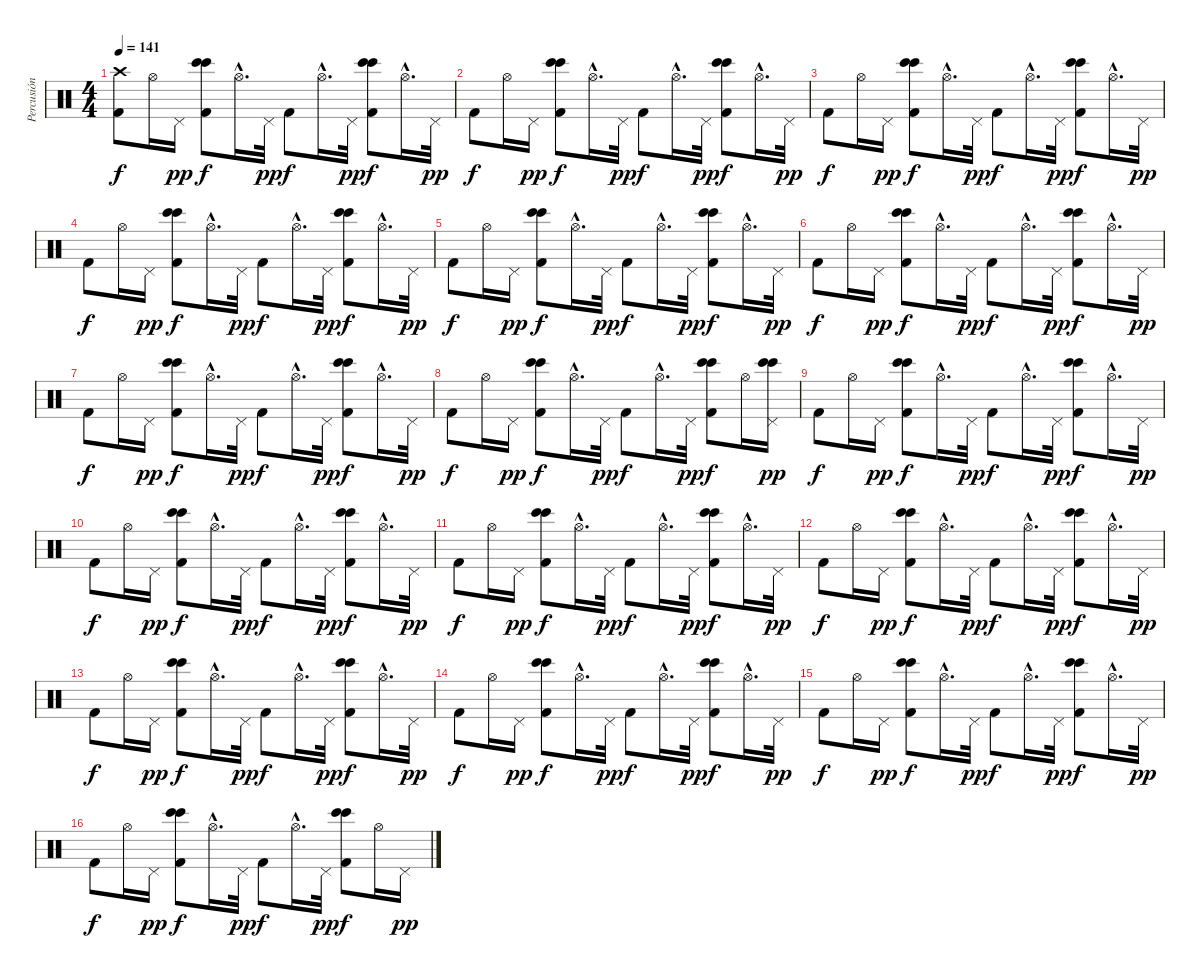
\track ("Percusión" "Percusión") {instrument percussion}
\staff {score}
\articulation defaults
\ts (4 4)
\tempo 141
\clef neutral
\ks c
("Crash high (hit)" "Kick (hit) 2").8{dy f} "Hi-Hat (open)".16 "Pedal Hi-Hat (hit)".16{dy pp} ("Bongo High (hit)" "Bongo High (hit)" "Kick (hit) 2").8{dy f} "Hi-Hat (open)"{hac}.16{d} "Pedal Hi-Hat (hit)".32{dy pp} "Kick (hit) 2".8{dy f} "Hi-Hat (open)"{hac}.16{d} "Pedal Hi-Hat (hit)".32{dy pp} ("Bongo High (hit)" "Bongo High (hit)" "Kick (hit) 2").8{dy f} "Hi-Hat (open)"{hac}.16{d} "Pedal Hi-Hat (hit)".32{dy pp} |
"Kick (hit) 2".8{dy f} "Hi-Hat (open)".16 "Pedal Hi-Hat (hit)".16{dy pp} ("Bongo High (hit)" "Bongo High (hit)" "Kick (hit) 2").8{dy f} "Hi-Hat (open)"{hac}.16{d} "Pedal Hi-Hat (hit)".32{dy pp} "Kick (hit) 2".8{dy f} "Hi-Hat (open)"{hac}.16{d} "Pedal Hi-Hat (hit)".32{dy pp} ("Bongo High (hit)" "Bongo High (hit)" "Kick (hit) 2").8{dy f} "Hi-Hat (open)"{hac}.16{d} "Pedal Hi-Hat (hit)".32{dy pp} |
"Kick (hit) 2".8{dy f} "Hi-Hat (open)".16 "Pedal Hi-Hat (hit)".16{dy pp} ("Bongo High (hit)" "Bongo High (hit)" "Kick (hit) 2").8{dy f} "Hi-Hat (open)"{hac}.16{d} "Pedal Hi-Hat (hit)".32{dy pp} "Kick (hit) 2".8{dy f} "Hi-Hat (open)"{hac}.16{d} "Pedal Hi-Hat (hit)".32{dy pp} ("Bongo High (hit)" "Bongo High (hit)" "Kick (hit) 2").8{dy f} "Hi-Hat (open)"{hac}.16{d} "Pedal Hi-Hat (hit)".32{dy pp} |
"Kick (hit) 2".8{dy f} "Hi-Hat (open)".16 "Pedal Hi-Hat (hit)".16{dy pp} ("Bongo High (hit)" "Bongo High (hit)" "Kick (hit) 2").8{dy f} "Hi-Hat (open)"{hac}.16{d} "Pedal Hi-Hat (hit)".32{dy pp} "Kick (hit) 2".8{dy f} "Hi-Hat (open)"{hac}.16{d} "Pedal Hi-Hat (hit)".32{dy pp} ("Bongo High (hit)" "Bongo High (hit)" "Kick (hit) 2").8{dy f} "Hi-Hat (open)"{hac}.16{d} "Pedal Hi-Hat (hit)".32{dy pp} |
"Kick (hit) 2".8{dy f} "Hi-Hat (open)".16 "Pedal Hi-Hat (hit)".16{dy pp} ("Bongo High (hit)" "Bongo High (hit)" "Kick (hit) 2").8{dy f} "Hi-Hat (open)"{hac}.16{d} "Pedal Hi-Hat (hit)".32{dy pp} "Kick (hit) 2".8{dy f} "Hi-Hat (open)"{hac}.16{d} "Pedal Hi-Hat (hit)".32{dy pp} ("Bongo High (hit)" "Bongo High (hit)" "Kick (hit) 2").8{dy f} "Hi-Hat (open)"{hac}.16{d} "Pedal Hi-Hat (hit)".32{dy pp} |
"Kick (hit) 2".8{dy f} "Hi-Hat (open)".16 "Pedal Hi-Hat (hit)".16{dy pp} ("Bongo High (hit)" "Bongo High (hit)" "Kick (hit) 2").8{dy f} "Hi-Hat (open)"{hac}.16{d} "Pedal Hi-Hat (hit)".32{dy pp} "Kick (hit) 2".8{dy f} "Hi-Hat (open)"{hac}.16{d} "Pedal Hi-Hat (hit)".32{dy pp} ("Bongo High (hit)" "Bongo High (hit)" "Kick (hit) 2").8{dy f} "Hi-Hat (open)"{hac}.16{d} "Pedal Hi-Hat (hit)".32{dy pp} |
"Kick (hit) 2".8{dy f} "Hi-Hat (open)".16 "Pedal Hi-Hat (hit)".16{dy pp} ("Bongo High (hit)" "Bongo High (hit)" "Kick (hit) 2").8{dy f} "Hi-Hat (open)"{hac}.16{d} "Pedal Hi-Hat (hit)".32{dy pp} "Kick (hit) 2".8{dy f} "Hi-Hat (open)"{hac}.16{d} "Pedal Hi-Hat (hit)".32{dy pp} ("Bongo High (hit)" "Bongo High (hit)" "Kick (hit) 2").8{dy f} "Hi-Hat (open)"{hac}.16{d} "Pedal Hi-Hat (hit)".32{dy pp} |
"Kick (hit) 2".8{dy f} "Hi-Hat (open)".16 "Pedal Hi-Hat (hit)".16{dy pp} ("Bongo High (hit)" "Bongo High (hit)" "Kick (hit) 2").8{dy f} "Hi-Hat (open)"{hac}.16{d} "Pedal Hi-Hat (hit)".32{dy pp} "Kick (hit) 2".8{dy f} "Hi-Hat (open)"{hac}.16{d} "Pedal Hi-Hat (hit)".32{dy pp} ("Bongo High (hit)" "Bongo High (hit)" "Kick (hit) 2").8{dy f} "Hi-Hat (open)".16 ("Pedal Hi-Hat (hit)" "Bongo High (hit)" "Bongo High (hit)").16{dy pp} |
"Kick (hit) 2".8{dy f} "Hi-Hat (open)".16 "Pedal Hi-Hat (hit)".16{dy pp} ("Bongo High (hit)" "Bongo High (hit)" "Kick (hit) 2").8{dy f} "Hi-Hat (open)"{hac}.16{d} "Pedal Hi-Hat (hit)".32{dy pp} "Kick (hit) 2".8{dy f} "Hi-Hat (open)"{hac}.16{d} "Pedal Hi-Hat (hit)".32{dy pp} ("Bongo High (hit)" "Bongo High (hit)" "Kick (hit) 2").8{dy f} "Hi-Hat (open)"{hac}.16{d} "Pedal Hi-Hat (hit)".32{dy pp} |
"Kick (hit) 2".8{dy f} "Hi-Hat (open)".16 "Pedal Hi-Hat (hit)".16{dy pp} ("Bongo High (hit)" "Bongo High (hit)" "Kick (hit) 2").8{dy f} "Hi-Hat (open)"{hac}.16{d} "Pedal Hi-Hat (hit)".32{dy pp} "Kick (hit) 2".8{dy f} "Hi-Hat (open)"{hac}.16{d} "Pedal Hi-Hat (hit)".32{dy pp} ("Bongo High (hit)" "Bongo High (hit)" "Kick (hit) 2").8{dy f} "Hi-Hat (open)"{hac}.16{d} "Pedal Hi-Hat (hit)".32{dy pp} |
"Kick (hit) 2".8{dy f} "Hi-Hat (open)".16 "Pedal Hi-Hat (hit)".16{dy pp} ("Bongo High (hit)" "Bongo High (hit)" "Kick (hit) 2").8{dy f} "Hi-Hat (open)"{hac}.16{d} "Pedal Hi-Hat (hit)".32{dy pp} "Kick (hit) 2".8{dy f} "Hi-Hat (open)"{hac}.16{d} "Pedal Hi-Hat (hit)".32{dy pp} ("Bongo High (hit)" "Bongo High (hit)" "Kick (hit) 2").8{dy f} "Hi-Hat (open)"{hac}.16{d} "Pedal Hi-Hat (hit)".32{dy pp} |
"Kick (hit) 2".8{dy f} "Hi-Hat (open)".16 "Pedal Hi-Hat (hit)".16{dy pp} ("Bongo High (hit)" "Bongo High (hit)" "Kick (hit) 2").8{dy f} "Hi-Hat (open)"{hac}.16{d} "Pedal Hi-Hat (hit)".32{dy pp} "Kick (hit) 2".8{dy f} "Hi-Hat (open)"{hac}.16{d} "Pedal Hi-Hat (hit)".32{dy pp} ("Bongo High (hit)" "Bongo High (hit)" "Kick (hit) 2").8{dy f} "Hi-Hat (open)"{hac}.16{d} "Pedal Hi-Hat (hit)".32{dy pp} |
"Kick (hit) 2".8{dy f} "Hi-Hat (open)".16 "Pedal Hi-Hat (hit)".16{dy pp} ("Bongo High (hit)" "Bongo High (hit)" "Kick (hit) 2").8{dy f} "Hi-Hat (open)"{hac}.16{d} "Pedal Hi-Hat (hit)".32{dy pp} "Kick (hit) 2".8{dy f} "Hi-Hat (open)"{hac}.16{d} "Pedal Hi-Hat (hit)".32{dy pp} ("Bongo High (hit)" "Bongo High (hit)" "Kick (hit) 2").8{dy f} "Hi-Hat (open)"{hac}.16{d} "Pedal Hi-Hat (hit)".32{dy pp} |
"Kick (hit) 2".8{dy f} "Hi-Hat (open)".16 "Pedal Hi-Hat (hit)".16{dy pp} ("Bongo High (hit)" "Bongo High (hit)" "Kick (hit) 2").8{dy f} "Hi-Hat (open)"{hac}.16{d} "Pedal Hi-Hat (hit)".32{dy pp} "Kick (hit) 2".8{dy f} "Hi-Hat (open)"{hac}.16{d} "Pedal Hi-Hat (hit)".32{dy pp} ("Bongo High (hit)" "Bongo High (hit)" "Kick (hit) 2").8{dy f} "Hi-Hat (open)"{hac}.16{d} "Pedal Hi-Hat (hit)".32{dy pp} |
"Kick (hit) 2".8{dy f} "Hi-Hat (open)".16 "Pedal Hi-Hat (hit)".16{dy pp} ("Bongo High (hit)" "Bongo High (hit)" "Kick (hit) 2").8{dy f} "Hi-Hat (open)"{hac}.16{d} "Pedal Hi-Hat (hit)".32{dy pp} "Kick (hit) 2".8{dy f} "Hi-Hat (open)"{hac}.16{d} "Pedal Hi-Hat (hit)".32{dy pp} ("Bongo High (hit)" "Bongo High (hit)" "Kick (hit) 2").8{dy f} "Hi-Hat (open)"{hac}.16{d} "Pedal Hi-Hat (hit)".32{dy pp} |
"Kick (hit) 2".8{dy f} "Hi-Hat (open)".16 "Pedal Hi-Hat (hit)".16{dy pp} ("Bongo High (hit)" "Bongo High (hit)" "Kick (hit) 2").8{dy f} "Hi-Hat (open)"{hac}.16{d} "Pedal Hi-Hat (hit)".32{dy pp} "Kick (hit) 2".8{dy f} "Hi-Hat (open)"{hac}.16{d} "Pedal Hi-Hat (hit)".32{dy pp} ("Bongo High (hit)" "Bongo High (hit)" "Kick (hit) 2").8{dy f} "Hi-Hat (open)".16 "Pedal Hi-Hat (hit)".16{dy pp}
